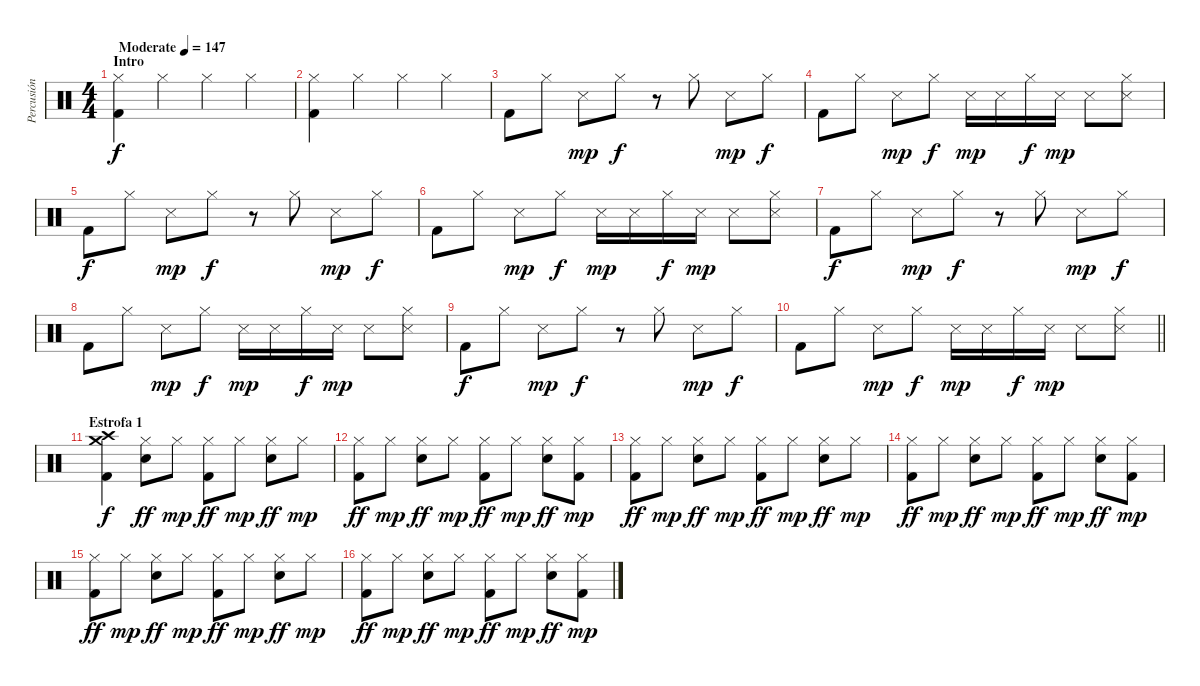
\track ("Percusión" "Percusión") {instrument percussion}
\staff {score}
\articulation defaults
\ts (4 4)
\section ("" "Intro")
\tempo (147 "Moderate")
\clef neutral
\ks c
("Hi-Hat (closed)" "Kick (hit) 2").4{dy f} "Hi-Hat (closed)".4 "Hi-Hat (closed)".4 "Hi-Hat (closed)".4 |
("Hi-Hat (closed)" "Kick (hit) 2").4 "Hi-Hat (closed)".4 "Hi-Hat (closed)".4 "Hi-Hat (closed)".4 |
"Kick (hit) 2".8 "Hi-Hat (closed)".8 "Snare (side stick) 3".8{dy mp} "Hi-Hat (closed)".8{dy f} r.8 "Hi-Hat (closed)".8 "Snare (side stick) 3".8{dy mp} "Hi-Hat (closed)".8{dy f} |
"Kick (hit) 2".8 "Hi-Hat (closed)".8 "Snare (side stick) 3".8{dy mp} "Hi-Hat (closed)".8{dy f} "Snare (side stick) 3".16{dy mp} "Snare (side stick) 3".16 "Hi-Hat (closed)".16{dy f} "Snare (side stick) 3".16{dy mp} "Snare (side stick) 3".8 ("Hi-Hat (closed)" "Snare (side stick) 3").8 |
"Kick (hit) 2".8{dy f} "Hi-Hat (closed)".8 "Snare (side stick) 3".8{dy mp} "Hi-Hat (closed)".8{dy f} r.8 "Hi-Hat (closed)".8 "Snare (side stick) 3".8{dy mp} "Hi-Hat (closed)".8{dy f} |
"Kick (hit) 2".8 "Hi-Hat (closed)".8 "Snare (side stick) 3".8{dy mp} "Hi-Hat (closed)".8{dy f} "Snare (side stick) 3".16{dy mp} "Snare (side stick) 3".16 "Hi-Hat (closed)".16{dy f} "Snare (side stick) 3".16{dy mp} "Snare (side stick) 3".8 ("Hi-Hat (closed)" "Snare (side stick) 3").8 |
"Kick (hit) 2".8{dy f} "Hi-Hat (closed)".8 "Snare (side stick) 3".8{dy mp} "Hi-Hat (closed)".8{dy f} r.8 "Hi-Hat (closed)".8 "Snare (side stick) 3".8{dy mp} "Hi-Hat (closed)".8{dy f} |
"Kick (hit) 2".8 "Hi-Hat (closed)".8 "Snare (side stick) 3".8{dy mp} "Hi-Hat (closed)".8{dy f} "Snare (side stick) 3".16{dy mp} "Snare (side stick) 3".16 "Hi-Hat (closed)".16{dy f} "Snare (side stick) 3".16{dy mp} "Snare (side stick) 3".8 ("Hi-Hat (closed)" "Snare (side stick) 3").8 |
"Kick (hit) 2".8{dy f} "Hi-Hat (closed)".8 "Snare (side stick) 3".8{dy mp} "Hi-Hat (closed)".8{dy f} r.8 "Hi-Hat (closed)".8 "Snare (side stick) 3".8{dy mp} "Hi-Hat (closed)".8{dy f} |
\barLineRight lightlight "Kick (hit) 2".8 "Hi-Hat (closed)".8 "Snare (side stick) 3".8{dy mp} "Hi-Hat (closed)".8{dy f} "Snare (side stick) 3".16{dy mp} "Snare (side stick) 3".16 "Hi-Hat (closed)".16{dy f} "Snare (side stick) 3".16{dy mp} "Snare (side stick) 3".8
("Hi-Hat (closed)" "Snare (side stick) 3").8 |
\section ("" "Estrofa 1")
("Crash high (hit)" "Crash medium (hit)" "Kick (hit) 2").4{dy f} ("Hi-Hat (closed)" "Snare (hit) 2").8{dy ff} "Hi-Hat (closed)".8{dy mp} ("Hi-Hat (closed)" "Kick (hit) 2").8{dy ff} "Hi-Hat (closed)".8{dy mp} ("Hi-Hat (closed)" "Snare (hit) 2").8{dy ff} "Hi-Hat (closed)".8{dy mp} |
("Hi-Hat (closed)" "Kick (hit) 2").8{dy ff} "Hi-Hat (closed)".8{dy mp} ("Hi-Hat (closed)" "Snare (hit) 2").8{dy ff} "Hi-Hat (closed)".8{dy mp} ("Hi-Hat (closed)" "Kick (hit) 2").8{dy ff} "Hi-Hat (closed)".8{dy mp} ("Hi-Hat (closed)" "Snare (hit) 2").8{dy ff} ("Hi-Hat (closed)" "Kick (hit) 2").8{dy mp} |
("Hi-Hat (closed)" "Kick (hit) 2").8{dy ff} "Hi-Hat (closed)".8{dy mp} ("Hi-Hat (closed)" "Snare (hit) 2").8{dy ff} "Hi-Hat (closed)".8{dy mp} ("Hi-Hat (closed)" "Kick (hit) 2").8{dy ff} "Hi-Hat (closed)".8{dy mp} ("Hi-Hat (closed)" "Snare (hit) 2").8{dy ff} "Hi-Hat (closed)".8{dy mp} |
("Hi-Hat (closed)" "Kick (hit) 2").8{dy ff} "Hi-Hat (closed)".8{dy mp} ("Hi-Hat (closed)" "Snare (hit) 2").8{dy ff} "Hi-Hat (closed)".8{dy mp} ("Hi-Hat (closed)" "Kick (hit) 2").8{dy ff} "Hi-Hat (closed)".8{dy mp} ("Hi-Hat (closed)" "Snare (hit) 2").8{dy ff} ("Hi-Hat (closed)" "Kick (hit) 2").8{dy mp} |
("Hi-Hat (closed)" "Kick (hit) 2").8{dy ff} "Hi-Hat (closed)".8{dy mp} ("Hi-Hat (closed)" "Snare (hit) 2").8{dy ff} "Hi-Hat (closed)".8{dy mp} ("Hi-Hat (closed)" "Kick (hit) 2").8{dy ff} "Hi-Hat (closed)".8{dy mp} ("Hi-Hat (closed)" "Snare (hit) 2").8{dy ff} "Hi-Hat (closed)".8{dy mp} |
("Hi-Hat (closed)" "Kick (hit) 2").8{dy ff} "Hi-Hat (closed)".8{dy mp} ("Hi-Hat (closed)" "Snare (hit) 2").8{dy ff} "Hi-Hat (closed)".8{dy mp} ("Hi-Hat (closed)" "Kick (hit) 2").8{dy ff} "Hi-Hat (closed)".8{dy mp} ("Hi-Hat (closed)" "Snare (hit) 2").8{dy ff} ("Hi-Hat (closed)" "Kick (hit) 2").8{dy mp}
